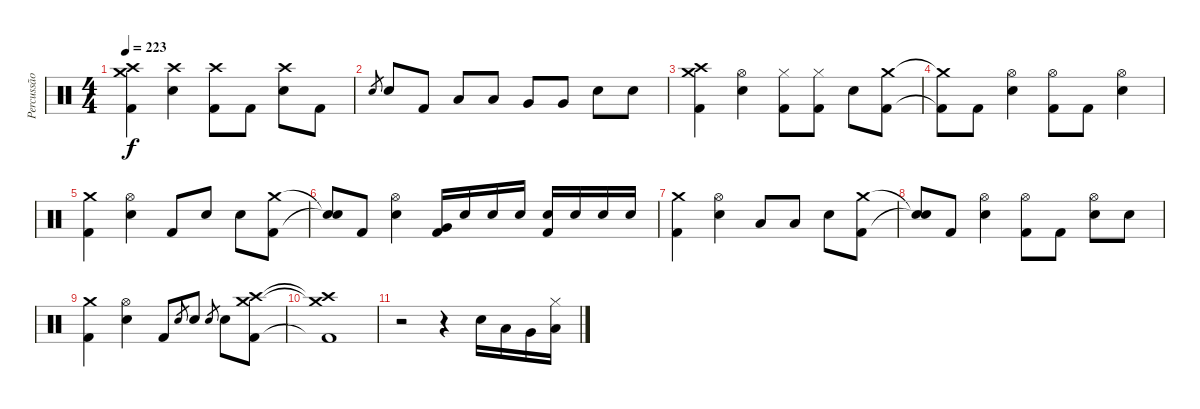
\track ("Percussão" "Percussão") {instrument percussion}
\staff {score}
\articulation defaults
\ts (4 4)
\tempo 223
\clef neutral
\ks c
("Crash medium (hit)" "Kick (hit) 2" "Crash high (hit)").4{dy f} ("Crash high (hit)" "Snare (hit) 2").4 ("Crash high (hit)" "Kick (hit) 2").8 "Kick (hit) 2".8 ("Crash high (hit)" "Snare (hit) 2").8 "Kick (hit) 2".8 |
"Snare (hit) 2".8{gr} "Snare (hit) 2".8 "Kick (hit) 2".8 "Low Tom (hit)".8 "Low Tom (hit)".8 "Very Low Tom (hit)".8 "Very Low Tom (hit)".8 "Snare (hit) 2".8 "Snare (hit) 2".8 |
("Crash medium (hit)" "Kick (hit) 2" "Crash high (hit)").4 ("Hi-Hat (open)" "Snare (hit) 2").4 ("Hi-Hat (closed)" "Kick (hit) 2").8 ("Hi-Hat (closed)" "Kick (hit) 2").8 "Snare (hit) 2".8 ("Crash medium (hit)" "Kick (hit) 2").8 |
("Crash medium (hit)"{t} "Kick (hit) 2"{t}).8 "Kick (hit) 2".8 ("Hi-Hat (open)" "Snare (hit) 2").4 ("Hi-Hat (open)" "Kick (hit) 2").8 "Kick (hit) 2".8 ("Hi-Hat (open)" "Snare (hit) 2").4 |
("Crash medium (hit)" "Kick (hit) 2").4 ("Hi-Hat (open)" "Snare (hit) 2").4 "Kick (hit) 2".8 "Snare (hit) 2".8 "Snare (hit) 2".8 ("Crash medium (hit)" "Kick (hit) 2").8 |
("Snare (hit)"{t} "Snare (hit)"{t}).8 "Kick (hit) 2".8 ("Hi-Hat (open)" "Snare (hit) 2").4 ("Very Low Tom (hit)" "Kick (hit) 2").16 "Snare (hit) 2".16 "Snare (hit) 2".16 "Snare (hit) 2".16 ("Snare (hit) 2" "Kick (hit) 2").16 "Snare (hit) 2".16 "Snare (hit) 2".16 "Snare (hit) 2".16 |
("Crash medium (hit)" "Kick (hit) 2").4 ("Hi-Hat (open)" "Snare (hit) 2").4 "Low Tom (hit)".8 "Low Tom (hit)".8 "Snare (hit) 2".8 ("Crash medium (hit)" "Kick (hit) 2").8 |
("Snare (hit)"{t} "Snare (hit)"{t}).8 "Kick (hit) 2".8 ("Hi-Hat (open)" "Snare (hit) 2").4 ("Hi-Hat (open)" "Kick (hit) 2").8 "Kick (hit) 2".8 ("Hi-Hat (open)" "Snare (hit) 2").8 "Snare (hit) 2".8 |
("Crash medium (hit)" "Kick (hit) 2").4 ("Hi-Hat (open)" "Snare (hit) 2").4 "Kick (hit) 2".8 "Snare (hit) 2".8{gr} "Snare (hit) 2".8 "Snare (hit) 2".8{gr} "Snare (hit) 2".8 ("Crash medium (hit)" "Kick (hit) 2" "Crash high (hit)").8 |
("Crash medium (hit)"{t} "Kick (hit) 2"{t} "Crash high (hit)"{t}).1 |
r.2 r.4 "Snare (hit) 2".16 "Low Tom (hit)".16 "Very Low Tom (hit)".16 ("Hi-Hat (closed)" "Low Floor Tom (hit)").16
